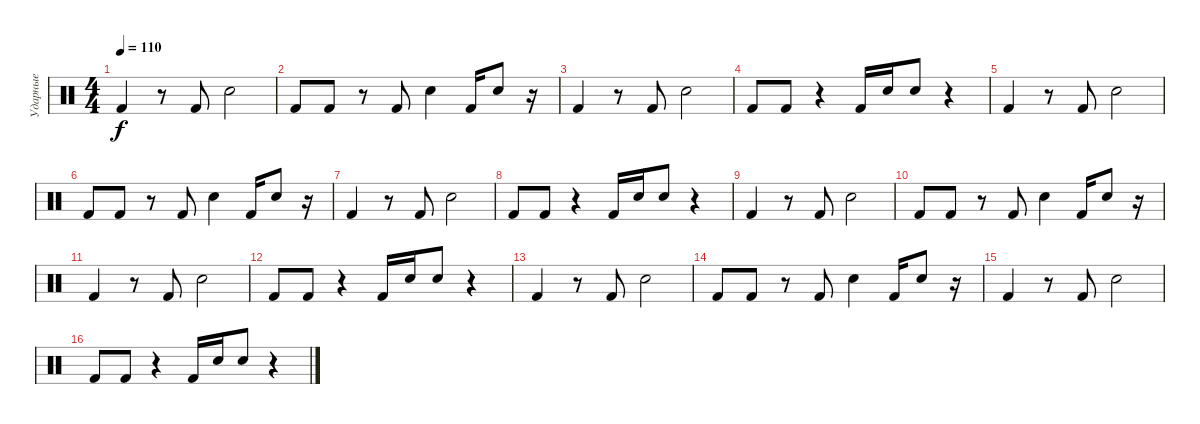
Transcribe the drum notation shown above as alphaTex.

\track ("Ударные" "Ударные") {instrument percussion}
\staff {score}
\articulation defaults
\ts (4 4)
\tempo 110
\clef neutral
\ks c "Kick (hit) 2".4{dy f}
r.8 "Kick (hit) 2".8 "Snare (hit) 2".2 |
"Kick (hit) 2".8 "Kick (hit) 2".8 r.8 "Kick (hit) 2".8 "Snare (hit) 2".4 "Kick (hit) 2".16 "Snare (hit) 2".8 r.16 |
"Kick (hit) 2".4 r.8 "Kick (hit) 2".8 "Snare (hit) 2".2 |
"Kick (hit) 2".8 "Kick (hit) 2".8 r.4 "Kick (hit) 2".16 "Snare (hit) 2".16 "Snare (hit) 2".8 r.4 |
"Kick (hit) 2".4 r.8 "Kick (hit) 2".8 "Snare (hit) 2".2 |
"Kick (hit) 2".8 "Kick (hit) 2".8 r.8 "Kick (hit) 2".8 "Snare (hit) 2".4 "Kick (hit) 2".16 "Snare (hit) 2".8 r.16 |
"Kick (hit) 2".4 r.8 "Kick (hit) 2".8 "Snare (hit) 2".2 |
"Kick (hit) 2".8 "Kick (hit) 2".8 r.4 "Kick (hit) 2".16 "Snare (hit) 2".16 "Snare (hit) 2".8 r.4 |
"Kick (hit) 2".4 r.8 "Kick (hit) 2".8 "Snare (hit) 2".2 |
"Kick (hit) 2".8 "Kick (hit) 2".8 r.8 "Kick (hit) 2".8 "Snare (hit) 2".4 "Kick (hit) 2".16 "Snare (hit) 2".8 r.16 |
"Kick (hit) 2".4 r.8 "Kick (hit) 2".8 "Snare (hit) 2".2 |
"Kick (hit) 2".8 "Kick (hit) 2".8 r.4 "Kick (hit) 2".16 "Snare (hit) 2".16 "Snare (hit) 2".8 r.4 |
"Kick (hit) 2".4 r.8 "Kick (hit) 2".8 "Snare (hit) 2".2 |
"Kick (hit) 2".8 "Kick (hit) 2".8 r.8 "Kick (hit) 2".8 "Snare (hit) 2".4 "Kick (hit) 2".16 "Snare (hit) 2".8 r.16 |
"Kick (hit) 2".4 r.8 "Kick (hit) 2".8 "Snare (hit) 2".2 |
"Kick (hit) 2".8 "Kick (hit) 2".8 r.4 "Kick (hit) 2".16 "Snare (hit) 2".16 "Snare (hit) 2".8 r.4
